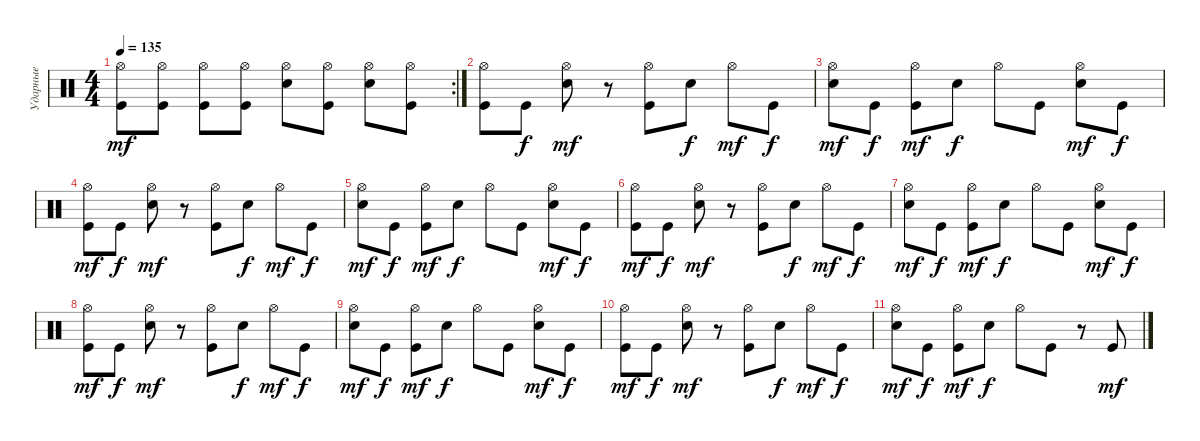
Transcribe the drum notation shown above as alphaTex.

\track ("Ударные" "Ударные") {instrument percussion}
\staff {score}
\articulation defaults
\rc 2
\ts (4 4)
\tempo 135
\clef neutral
\ks c
("Kick (hit)" "Hi-Hat (open)").8{dy mf} ("Kick (hit)" "Hi-Hat (open)").8 ("Kick (hit)" "Hi-Hat (open)").8 ("Kick (hit)" "Hi-Hat (open)").8 ("Snare (hit) 2" "Hi-Hat (open)").8 ("Kick (hit)" "Hi-Hat (open)").8 ("Snare (hit) 2" "Hi-Hat (open)").8 ("Kick (hit)" "Hi-Hat (open)").8 |
("Kick (hit)" "Hi-Hat (open)").8 "Kick (hit)".8{dy f} ("Snare (hit) 2" "Hi-Hat (open)").8{dy mf} r.8 ("Kick (hit)" "Hi-Hat (open)").8 "Snare (hit) 2".8{dy f} "Hi-Hat (open)".8{dy mf} "Kick (hit)".8{dy f} |
("Snare (hit) 2" "Hi-Hat (open)").8{dy mf} "Kick (hit)".8{dy f} ("Kick (hit)" "Hi-Hat (open)").8{dy mf} "Snare (hit) 2".8{dy f} "Hi-Hat (open)".8 "Kick (hit)".8 ("Snare (hit) 2" "Hi-Hat (open)").8{dy mf} "Kick (hit)".8{dy f} |
("Kick (hit)" "Hi-Hat (open)").8{dy mf} "Kick (hit)".8{dy f} ("Snare (hit) 2" "Hi-Hat (open)").8{dy mf} r.8 ("Kick (hit)" "Hi-Hat (open)").8 "Snare (hit) 2".8{dy f} "Hi-Hat (open)".8{dy mf} "Kick (hit)".8{dy f} |
("Snare (hit) 2" "Hi-Hat (open)").8{dy mf} "Kick (hit)".8{dy f} ("Kick (hit)" "Hi-Hat (open)").8{dy mf} "Snare (hit) 2".8{dy f} "Hi-Hat (open)".8 "Kick (hit)".8 ("Snare (hit) 2" "Hi-Hat (open)").8{dy mf} "Kick (hit)".8{dy f} |
("Kick (hit)" "Hi-Hat (open)").8{dy mf} "Kick (hit)".8{dy f} ("Snare (hit) 2" "Hi-Hat (open)").8{dy mf} r.8 ("Kick (hit)" "Hi-Hat (open)").8 "Snare (hit) 2".8{dy f} "Hi-Hat (open)".8{dy mf} "Kick (hit)".8{dy f} |
("Snare (hit) 2" "Hi-Hat (open)").8{dy mf} "Kick (hit)".8{dy f} ("Kick (hit)" "Hi-Hat (open)").8{dy mf} "Snare (hit) 2".8{dy f} "Hi-Hat (open)".8 "Kick (hit)".8 ("Snare (hit) 2" "Hi-Hat (open)").8{dy mf} "Kick (hit)".8{dy f} |
("Kick (hit)" "Hi-Hat (open)").8{dy mf} "Kick (hit)".8{dy f} ("Snare (hit) 2" "Hi-Hat (open)").8{dy mf} r.8 ("Kick (hit)" "Hi-Hat (open)").8 "Snare (hit) 2".8{dy f} "Hi-Hat (open)".8{dy mf} "Kick (hit)".8{dy f} |
("Snare (hit) 2" "Hi-Hat (open)").8{dy mf} "Kick (hit)".8{dy f} ("Kick (hit)" "Hi-Hat (open)").8{dy mf} "Snare (hit) 2".8{dy f} "Hi-Hat (open)".8 "Kick (hit)".8 ("Snare (hit) 2" "Hi-Hat (open)").8{dy mf} "Kick (hit)".8{dy f} |
("Kick (hit)" "Hi-Hat (open)").8{dy mf} "Kick (hit)".8{dy f} ("Snare (hit) 2" "Hi-Hat (open)").8{dy mf} r.8 ("Kick (hit)" "Hi-Hat (open)").8 "Snare (hit) 2".8{dy f} "Hi-Hat (open)".8{dy mf} "Kick (hit)".8{dy f} |
("Snare (hit) 2" "Hi-Hat (open)").8{dy mf} "Kick (hit)".8{dy f} ("Kick (hit)" "Hi-Hat (open)").8{dy mf} "Snare (hit) 2".8{dy f} "Hi-Hat (open)".8 "Kick (hit)".8 r.8 "Kick (hit)".8{dy mf}
